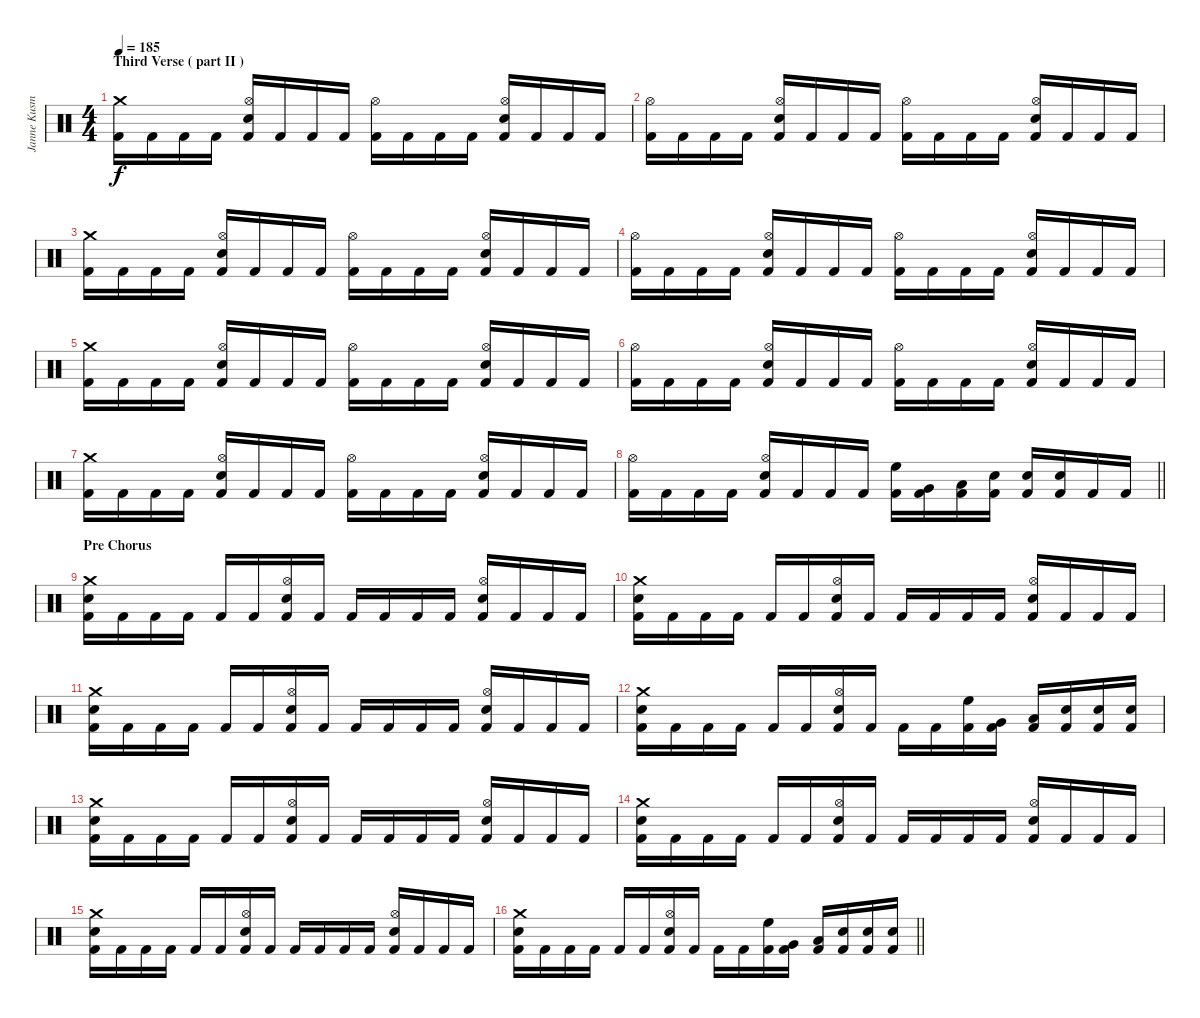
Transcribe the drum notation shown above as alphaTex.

\track ("Janne Kusmin" "Janne Kusm") {instrument percussion}
\staff {score}
\articulation defaults
\ts (4 4)
\section ("" "Third Verse ( part II )")
\tempo 185
\clef neutral
\ks c
("Crash medium (hit)" "Kick (hit) 2").16{dy f} "Kick (hit) 2".16 "Kick (hit) 2".16 "Kick (hit) 2".16 ("Hi-Hat (open)" "Electric Snare (hit)" "Kick (hit) 2").16 "Kick (hit) 2".16 "Kick (hit) 2".16 "Kick (hit) 2".16 ("Hi-Hat (open)" "Kick (hit) 2").16 "Kick (hit) 2".16 "Kick (hit) 2".16 "Kick (hit) 2".16 ("Hi-Hat (open)" "Electric Snare (hit)" "Kick (hit) 2").16 "Kick (hit) 2".16 "Kick (hit) 2".16 "Kick (hit) 2".16 |
("Hi-Hat (open)" "Kick (hit) 2").16 "Kick (hit) 2".16 "Kick (hit) 2".16 "Kick (hit) 2".16 ("Hi-Hat (open)" "Electric Snare (hit)" "Kick (hit) 2").16 "Kick (hit) 2".16 "Kick (hit) 2".16 "Kick (hit) 2".16 ("Hi-Hat (open)" "Kick (hit) 2").16 "Kick (hit) 2".16 "Kick (hit) 2".16 "Kick (hit) 2".16 ("Hi-Hat (open)" "Electric Snare (hit)" "Kick (hit) 2").16 "Kick (hit) 2".16 "Kick (hit) 2".16 "Kick (hit) 2".16 |
("Crash medium (hit)" "Kick (hit) 2").16 "Kick (hit) 2".16 "Kick (hit) 2".16 "Kick (hit) 2".16 ("Hi-Hat (open)" "Electric Snare (hit)" "Kick (hit) 2").16 "Kick (hit) 2".16 "Kick (hit) 2".16 "Kick (hit) 2".16 ("Hi-Hat (open)" "Kick (hit) 2").16 "Kick (hit) 2".16 "Kick (hit) 2".16 "Kick (hit) 2".16 ("Hi-Hat (open)" "Electric Snare (hit)" "Kick (hit) 2").16 "Kick (hit) 2".16 "Kick (hit) 2".16 "Kick (hit) 2".16 |
("Hi-Hat (open)" "Kick (hit) 2").16 "Kick (hit) 2".16 "Kick (hit) 2".16 "Kick (hit) 2".16 ("Hi-Hat (open)" "Electric Snare (hit)" "Kick (hit) 2").16 "Kick (hit) 2".16 "Kick (hit) 2".16 "Kick (hit) 2".16 ("Hi-Hat (open)" "Kick (hit) 2").16 "Kick (hit) 2".16 "Kick (hit) 2".16 "Kick (hit) 2".16 ("Hi-Hat (open)" "Electric Snare (hit)" "Kick (hit) 2").16 "Kick (hit) 2".16 "Kick (hit) 2".16 "Kick (hit) 2".16 |
("Crash medium (hit)" "Kick (hit) 2").16 "Kick (hit) 2".16 "Kick (hit) 2".16 "Kick (hit) 2".16 ("Hi-Hat (open)" "Electric Snare (hit)" "Kick (hit) 2").16 "Kick (hit) 2".16 "Kick (hit) 2".16 "Kick (hit) 2".16 ("Hi-Hat (open)" "Kick (hit) 2").16 "Kick (hit) 2".16 "Kick (hit) 2".16 "Kick (hit) 2".16 ("Hi-Hat (open)" "Electric Snare (hit)" "Kick (hit) 2").16 "Kick (hit) 2".16 "Kick (hit) 2".16 "Kick (hit) 2".16 |
("Hi-Hat (open)" "Kick (hit) 2").16 "Kick (hit) 2".16 "Kick (hit) 2".16 "Kick (hit) 2".16 ("Hi-Hat (open)" "Electric Snare (hit)" "Kick (hit) 2").16 "Kick (hit) 2".16 "Kick (hit) 2".16 "Kick (hit) 2".16 ("Hi-Hat (open)" "Kick (hit) 2").16 "Kick (hit) 2".16 "Kick (hit) 2".16 "Kick (hit) 2".16 ("Hi-Hat (open)" "Electric Snare (hit)" "Kick (hit) 2").16 "Kick (hit) 2".16 "Kick (hit) 2".16 "Kick (hit) 2".16 |
("Crash medium (hit)" "Kick (hit) 2").16 "Kick (hit) 2".16 "Kick (hit) 2".16 "Kick (hit) 2".16 ("Hi-Hat (open)" "Electric Snare (hit)" "Kick (hit) 2").16 "Kick (hit) 2".16 "Kick (hit) 2".16 "Kick (hit) 2".16 ("Hi-Hat (open)" "Kick (hit) 2").16 "Kick (hit) 2".16 "Kick (hit) 2".16 "Kick (hit) 2".16 ("Hi-Hat (open)" "Electric Snare (hit)" "Kick (hit) 2").16 "Kick (hit) 2".16 "Kick (hit) 2".16 "Kick (hit) 2".16 |
\barLineRight lightlight
("Hi-Hat (open)" "Kick (hit) 2").16 "Kick (hit) 2".16 "Kick (hit) 2".16 "Kick (hit) 2".16 ("Hi-Hat (open)" "Electric Snare (hit)" "Kick (hit) 2").16 "Kick (hit) 2".16 "Kick (hit) 2".16 "Kick (hit) 2".16 ("High Floor Tom (hit)" "Kick (hit) 2").16 ("Very Low Tom (hit)" "Kick (hit) 2").16 ("Low Floor Tom (hit)" "Kick (hit) 2").16 ("Electric Snare (hit)" "Kick (hit) 2").16 ("Electric Snare (hit)" "Kick (hit) 2").16 ("Electric Snare (hit)" "Kick (hit) 2").16 "Kick (hit) 2".16 "Kick (hit) 2".16 |
\section ("" "Pre Chorus ")
("Crash medium (hit)" "Electric Snare (hit)" "Kick (hit) 2").16 "Kick (hit) 2".16 "Kick (hit) 2".16 "Kick (hit) 2".16 "Kick (hit) 2".16 "Kick (hit) 2".16 ("Hi-Hat (open)" "Electric Snare (hit)" "Kick (hit) 2").16 "Kick (hit) 2".16 "Kick (hit) 2".16 "Kick (hit) 2".16 "Kick (hit) 2".16 "Kick (hit) 2".16 ("Hi-Hat (open)" "Electric Snare (hit)" "Kick (hit) 2").16 "Kick (hit) 2".16 "Kick (hit) 2".16 "Kick (hit) 2".16 |
("Crash medium (hit)" "Electric Snare (hit)" "Kick (hit) 2").16 "Kick (hit) 2".16 "Kick (hit) 2".16 "Kick (hit) 2".16 "Kick (hit) 2".16 "Kick (hit) 2".16 ("Hi-Hat (open)" "Electric Snare (hit)" "Kick (hit) 2").16 "Kick (hit) 2".16 "Kick (hit) 2".16 "Kick (hit) 2".16 "Kick (hit) 2".16 "Kick (hit) 2".16 ("Hi-Hat (open)" "Electric Snare (hit)" "Kick (hit) 2").16 "Kick (hit) 2".16 "Kick (hit) 2".16 "Kick (hit) 2".16 |
("Crash medium (hit)" "Electric Snare (hit)" "Kick (hit) 2").16 "Kick (hit) 2".16 "Kick (hit) 2".16 "Kick (hit) 2".16 "Kick (hit) 2".16 "Kick (hit) 2".16 ("Hi-Hat (open)" "Electric Snare (hit)" "Kick (hit) 2").16 "Kick (hit) 2".16 "Kick (hit) 2".16 "Kick (hit) 2".16 "Kick (hit) 2".16 "Kick (hit) 2".16 ("Hi-Hat (open)" "Electric Snare (hit)" "Kick (hit) 2").16 "Kick (hit) 2".16 "Kick (hit) 2".16 "Kick (hit) 2".16 |
("Crash medium (hit)" "Electric Snare (hit)" "Kick (hit) 2").16 "Kick (hit) 2".16 "Kick (hit) 2".16 "Kick (hit) 2".16 "Kick (hit) 2".16 "Kick (hit) 2".16 ("Hi-Hat (open)" "Electric Snare (hit)" "Kick (hit) 2").16 "Kick (hit) 2".16 "Kick (hit) 2".16 "Kick (hit) 2".16 ("High Floor Tom (hit)" "Kick (hit) 2").16 ("Very Low Tom (hit)" "Kick (hit) 2").16 ("Low Floor Tom (hit)" "Kick (hit) 2").16 ("Electric Snare (hit)" "Kick (hit) 2").16 ("Electric Snare (hit)" "Kick (hit) 2").16 ("Electric Snare (hit)" "Kick (hit) 2").16 |
("Crash medium (hit)" "Electric Snare (hit)" "Kick (hit) 2").16 "Kick (hit) 2".16 "Kick (hit) 2".16 "Kick (hit) 2".16 "Kick (hit) 2".16 "Kick (hit) 2".16 ("Hi-Hat (open)" "Electric Snare (hit)" "Kick (hit) 2").16 "Kick (hit) 2".16 "Kick (hit) 2".16 "Kick (hit) 2".16 "Kick (hit) 2".16 "Kick (hit) 2".16 ("Hi-Hat (open)" "Electric Snare (hit)" "Kick (hit) 2").16 "Kick (hit) 2".16 "Kick (hit) 2".16 "Kick (hit) 2".16 |
("Crash medium (hit)" "Electric Snare (hit)" "Kick (hit) 2").16 "Kick (hit) 2".16 "Kick (hit) 2".16 "Kick (hit) 2".16 "Kick (hit) 2".16 "Kick (hit) 2".16 ("Hi-Hat (open)" "Electric Snare (hit)" "Kick (hit) 2").16 "Kick (hit) 2".16 "Kick (hit) 2".16 "Kick (hit) 2".16 "Kick (hit) 2".16 "Kick (hit) 2".16 ("Hi-Hat (open)" "Electric Snare (hit)" "Kick (hit) 2").16 "Kick (hit) 2".16 "Kick (hit) 2".16 "Kick (hit) 2".16 |
("Crash medium (hit)" "Electric Snare (hit)" "Kick (hit) 2").16 "Kick (hit) 2".16 "Kick (hit) 2".16 "Kick (hit) 2".16 "Kick (hit) 2".16 "Kick (hit) 2".16 ("Hi-Hat (open)" "Electric Snare (hit)" "Kick (hit) 2").16 "Kick (hit) 2".16 "Kick (hit) 2".16 "Kick (hit) 2".16 "Kick (hit) 2".16 "Kick (hit) 2".16 ("Hi-Hat (open)" "Electric Snare (hit)" "Kick (hit) 2").16 "Kick (hit) 2".16 "Kick (hit) 2".16 "Kick (hit) 2".16 |
\barLineRight lightlight
("Crash medium (hit)" "Electric Snare (hit)" "Kick (hit) 2").16 "Kick (hit) 2".16 "Kick (hit) 2".16 "Kick (hit) 2".16 "Kick (hit) 2".16 "Kick (hit) 2".16 ("Hi-Hat (open)" "Electric Snare (hit)" "Kick (hit) 2").16 "Kick (hit) 2".16 "Kick (hit) 2".16 "Kick (hit) 2".16 ("High Floor Tom (hit)" "Kick (hit) 2").16 ("Very Low Tom (hit)" "Kick (hit) 2").16 ("Low Floor Tom (hit)" "Kick (hit) 2").16 ("Electric Snare (hit)" "Kick (hit) 2").16 ("Electric Snare (hit)" "Kick (hit) 2").16 ("Electric Snare (hit)" "Kick (hit) 2").16
